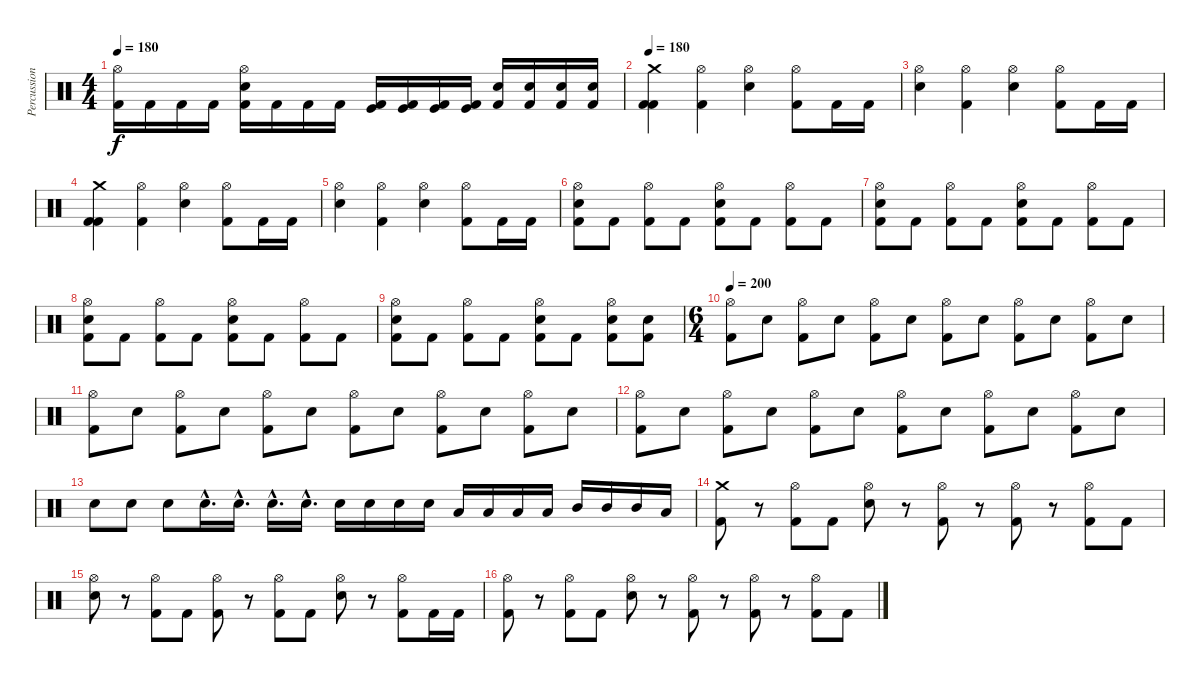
\track ("Percussion" "Percussion") {instrument percussion}
\staff {score}
\articulation defaults
\ts (4 4)
\tempo 180
\clef neutral
\ks c
("Hi-Hat (open)" "Kick (hit) 2").16{dy f} "Kick (hit) 2".16 "Kick (hit) 2".16 "Kick (hit) 2".16 ("Hi-Hat (open)" "Kick (hit) 2" "Electric Snare (hit)").16 "Kick (hit) 2".16 "Kick (hit) 2".16 "Kick (hit) 2".16 ("Kick (hit)" "Kick (hit) 2").16 ("Kick (hit)" "Kick (hit) 2").16 ("Kick (hit)" "Kick (hit) 2").16 ("Kick (hit)" "Kick (hit) 2").16 ("Electric Snare (hit)" "Kick (hit) 2").16 ("Electric Snare (hit)" "Kick (hit) 2").16 ("Electric Snare (hit)" "Kick (hit) 2").16 ("Electric Snare (hit)" "Kick (hit) 2").16 |
\tempo 180
("Crash medium (hit)" "Kick (hit) 2" "Kick (hit) 2").4 ("Hi-Hat (open)" "Kick (hit) 2").4 ("Hi-Hat (open)" "Electric Snare (hit)").4 ("Hi-Hat (open)" "Kick (hit) 2").8 "Kick (hit) 2".16 "Kick (hit) 2".16 |
("Hi-Hat (open)" "Electric Snare (hit)").4 ("Hi-Hat (open)" "Kick (hit) 2").4 ("Hi-Hat (open)" "Electric Snare (hit)").4 ("Hi-Hat (open)" "Kick (hit) 2").8 "Kick (hit) 2".16 "Kick (hit) 2".16 |
("Crash medium (hit)" "Kick (hit) 2" "Kick (hit) 2").4 ("Hi-Hat (open)" "Kick (hit) 2").4 ("Hi-Hat (open)" "Electric Snare (hit)").4 ("Hi-Hat (open)" "Kick (hit) 2").8 "Kick (hit) 2".16 "Kick (hit) 2".16 |
("Hi-Hat (open)" "Electric Snare (hit)").4 ("Hi-Hat (open)" "Kick (hit) 2").4 ("Hi-Hat (open)" "Electric Snare (hit)").4 ("Hi-Hat (open)" "Kick (hit) 2").8 "Kick (hit) 2".16 "Kick (hit) 2".16 |
("Hi-Hat (open)" "Electric Snare (hit)" "Kick (hit) 2").8 "Kick (hit) 2".8 ("Hi-Hat (open)" "Kick (hit) 2").8 "Kick (hit) 2".8 ("Hi-Hat (open)" "Electric Snare (hit)" "Kick (hit) 2").8 "Kick (hit) 2".8 ("Hi-Hat (open)" "Kick (hit) 2").8 "Kick (hit) 2".8 |
("Hi-Hat (open)" "Electric Snare (hit)" "Kick (hit) 2").8 "Kick (hit) 2".8 ("Hi-Hat (open)" "Kick (hit) 2").8 "Kick (hit) 2".8 ("Hi-Hat (open)" "Electric Snare (hit)" "Kick (hit) 2").8 "Kick (hit) 2".8 ("Hi-Hat (open)" "Kick (hit) 2").8 "Kick (hit) 2".8 |
("Hi-Hat (open)" "Electric Snare (hit)" "Kick (hit) 2").8 "Kick (hit) 2".8 ("Hi-Hat (open)" "Kick (hit) 2").8 "Kick (hit) 2".8 ("Hi-Hat (open)" "Electric Snare (hit)" "Kick (hit) 2").8 "Kick (hit) 2".8 ("Hi-Hat (open)" "Kick (hit) 2").8 "Kick (hit) 2".8 |
("Hi-Hat (open)" "Electric Snare (hit)" "Kick (hit) 2").8 "Kick (hit) 2".8 ("Hi-Hat (open)" "Kick (hit) 2").8 "Kick (hit) 2".8 ("Hi-Hat (open)" "Electric Snare (hit)" "Kick (hit) 2").8 "Kick (hit) 2".8 ("Hi-Hat (open)" "Electric Snare (hit)" "Kick (hit) 2").8 ("Electric Snare (hit)" "Kick (hit) 2").8 |
\ts (6 4)
\tempo 200
("Hi-Hat (open)" "Kick (hit) 2").8 "Electric Snare (hit)".8 ("Hi-Hat (open)" "Kick (hit) 2").8 "Electric Snare (hit)".8 ("Hi-Hat (open)" "Kick (hit) 2").8 "Electric Snare (hit)".8 ("Hi-Hat (open)" "Kick (hit) 2").8 "Electric Snare (hit)".8 ("Hi-Hat (open)" "Kick (hit) 2").8 "Electric Snare (hit)".8 ("Hi-Hat (open)" "Kick (hit) 2").8 "Electric Snare (hit)".8 |
("Hi-Hat (open)" "Kick (hit) 2").8 "Electric Snare (hit)".8 ("Hi-Hat (open)" "Kick (hit) 2").8 "Electric Snare (hit)".8 ("Hi-Hat (open)" "Kick (hit) 2").8 "Electric Snare (hit)".8 ("Hi-Hat (open)" "Kick (hit) 2").8 "Electric Snare (hit)".8 ("Hi-Hat (open)" "Kick (hit) 2").8 "Electric Snare (hit)".8 ("Hi-Hat (open)" "Kick (hit) 2").8 "Electric Snare (hit)".8 |
("Hi-Hat (open)" "Kick (hit) 2").8 "Electric Snare (hit)".8 ("Hi-Hat (open)" "Kick (hit) 2").8 "Electric Snare (hit)".8 ("Hi-Hat (open)" "Kick (hit) 2").8 "Electric Snare (hit)".8 ("Hi-Hat (open)" "Kick (hit) 2").8 "Electric Snare (hit)".8 ("Hi-Hat (open)" "Kick (hit) 2").8 "Electric Snare (hit)".8 ("Hi-Hat (open)" "Kick (hit) 2").8 "Electric Snare (hit)".8 |
"Electric Snare (hit)".8 "Electric Snare (hit)".8 "Electric Snare (hit)".8 "Electric Snare (hit)"{hac}.16{d} "Electric Snare (hit)"{hac}.16{d} "Electric Snare (hit)"{hac}.16{d} "Electric Snare (hit)"{hac}.16{d} "Electric Snare (hit)".16 "Electric Snare (hit)".16 "Electric Snare (hit)".16 "Electric Snare (hit)".16 "Low Tom (hit)".16 "Low Tom (hit)".16 "Low Tom (hit)".16 "Low Tom (hit)".16 "Mid Tom (hit)".16 "Mid Tom (hit)".16 "Mid Tom (hit)".16 "Low Floor Tom (hit)".16 |
("Crash medium (hit)" "Kick (hit) 2").8 r.8 ("Hi-Hat (open)" "Kick (hit) 2").8 "Kick (hit) 2".8 ("Hi-Hat (open)" "Electric Snare (hit)").8 r.8 ("Hi-Hat (open)" "Kick (hit) 2").8 r.8 ("Hi-Hat (open)" "Kick (hit) 2").8 r.8 ("Hi-Hat (open)" "Kick (hit) 2").8 "Kick (hit) 2".8 |
("Hi-Hat (open)" "Electric Snare (hit)").8 r.8 ("Hi-Hat (open)" "Kick (hit) 2").8 "Kick (hit) 2".8 ("Hi-Hat (open)" "Kick (hit) 2").8 r.8 ("Hi-Hat (open)" "Kick (hit) 2").8 "Kick (hit) 2".8 ("Hi-Hat (open)" "Electric Snare (hit)").8 r.8 ("Hi-Hat (open)" "Kick (hit) 2").8 "Kick (hit) 2".16 "Kick (hit) 2".16 |
("Hi-Hat (open)" "Kick (hit) 2").8 r.8 ("Hi-Hat (open)" "Kick (hit) 2").8 "Kick (hit) 2".8 ("Hi-Hat (open)" "Electric Snare (hit)").8 r.8 ("Hi-Hat (open)" "Kick (hit) 2").8 r.8 ("Hi-Hat (open)" "Kick (hit) 2").8 r.8 ("Hi-Hat (open)" "Kick (hit) 2").8 "Kick (hit) 2".8
